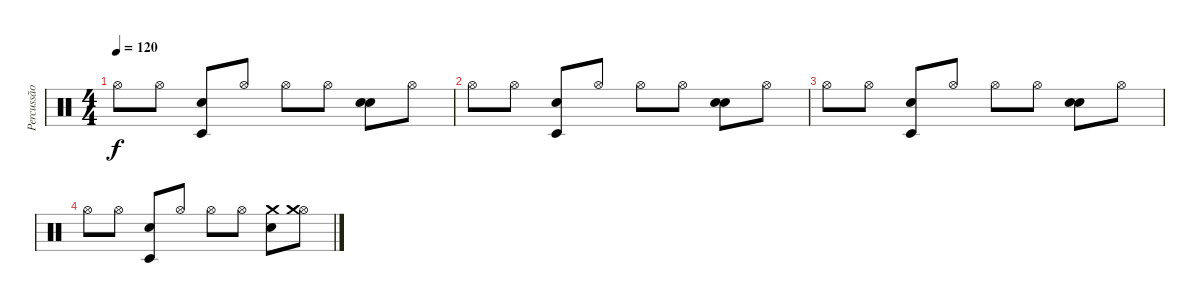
\track ("Percussão" "Percussão") {instrument percussion}
\staff {score}
\articulation defaults
\ts (4 4)
\tempo 120
\clef neutral
\ks c "Hi-Hat (open)".8{dy f} "Hi-Hat (open)".8
("Timbale low (hit)" "Snare (hit) 2").8 "Hi-Hat (open)".8 "Hi-Hat (open)".8 "Hi-Hat (open)".8 ("Hand Clap (hit)" "Snare (hit) 2").8 "Hi-Hat (open)".8 |
"Hi-Hat (open)".8 "Hi-Hat (open)".8 ("Timbale low (hit)" "Snare (hit) 2").8 "Hi-Hat (open)".8 "Hi-Hat (open)".8 "Hi-Hat (open)".8 ("Hand Clap (hit)" "Snare (hit) 2").8 "Hi-Hat (open)".8 |
"Hi-Hat (open)".8 "Hi-Hat (open)".8 ("Timbale low (hit)" "Snare (hit) 2").8 "Hi-Hat (open)".8 "Hi-Hat (open)".8 "Hi-Hat (open)".8 ("Hand Clap (hit)" "Snare (hit) 2").8 "Hi-Hat (open)".8 |
"Hi-Hat (open)".8 "Hi-Hat (open)".8 ("Timbale low (hit)" "Snare (hit) 2").8 "Hi-Hat (open)".8 "Hi-Hat (open)".8 "Hi-Hat (open)".8 ("Crash medium (hit)" "Snare (hit) 2").8 ("Hi-Hat (open)" "Crash medium (hit)").8
